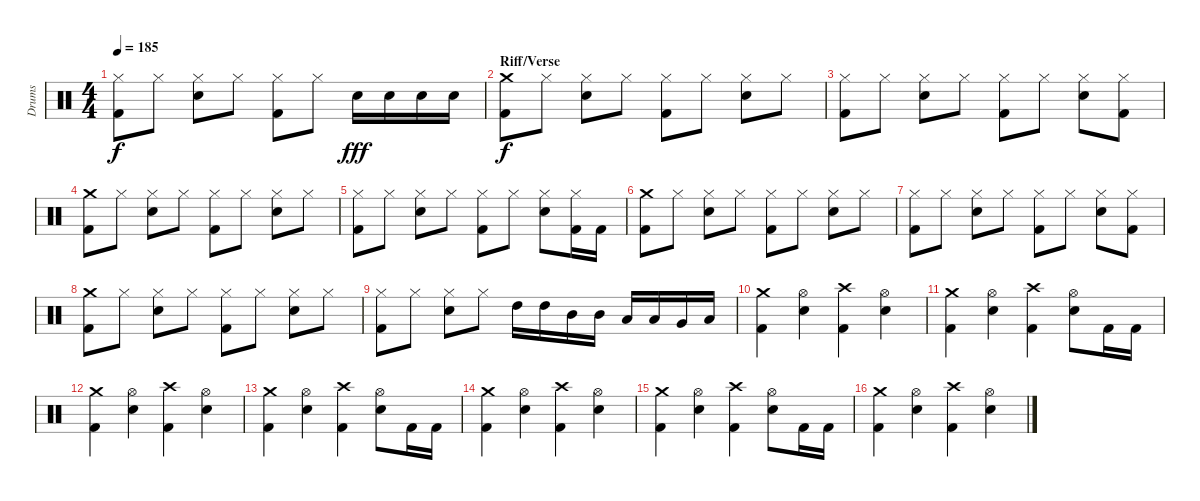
\track ("Drums" "Drums") {instrument percussion}
\staff {score}
\articulation defaults
\ts (4 4)
\tempo 185
\clef neutral
\ks c
("Hi-Hat (closed)" "Kick (hit) 2").8{dy f} "Hi-Hat (closed)".8 ("Hi-Hat (closed)" "Electric Snare (hit)").8 "Hi-Hat (closed)".8 ("Hi-Hat (closed)" "Kick (hit) 2").8 "Hi-Hat (closed)".8 "Electric Snare (hit)".16{dy fff} "Electric Snare (hit)".16 "Electric Snare (hit)".16 "Electric Snare (hit)".16 |
\section ("" "Riff/Verse")
("Crash medium (hit)" "Kick (hit) 2").8{dy f} "Hi-Hat (closed)".8 ("Hi-Hat (closed)" "Electric Snare (hit)").8 "Hi-Hat (closed)".8 ("Hi-Hat (closed)" "Kick (hit) 2").8 "Hi-Hat (closed)".8 ("Hi-Hat (closed)" "Electric Snare (hit)").8 "Hi-Hat (closed)".8 |
("Hi-Hat (closed)" "Kick (hit) 2").8 "Hi-Hat (closed)".8 ("Hi-Hat (closed)" "Electric Snare (hit)").8 "Hi-Hat (closed)".8 ("Hi-Hat (closed)" "Kick (hit) 2").8 "Hi-Hat (closed)".8 ("Hi-Hat (closed)" "Electric Snare (hit)").8 ("Hi-Hat (closed)" "Kick (hit) 2").8 |
("Crash medium (hit)" "Kick (hit) 2").8 "Hi-Hat (closed)".8 ("Hi-Hat (closed)" "Electric Snare (hit)").8 "Hi-Hat (closed)".8 ("Hi-Hat (closed)" "Kick (hit) 2").8 "Hi-Hat (closed)".8 ("Hi-Hat (closed)" "Electric Snare (hit)").8 "Hi-Hat (closed)".8 |
("Hi-Hat (closed)" "Kick (hit) 2").8 "Hi-Hat (closed)".8 ("Hi-Hat (closed)" "Electric Snare (hit)").8 "Hi-Hat (closed)".8 ("Hi-Hat (closed)" "Kick (hit) 2").8 "Hi-Hat (closed)".8 ("Hi-Hat (closed)" "Electric Snare (hit)").8 ("Hi-Hat (closed)" "Kick (hit) 2").16 "Kick (hit) 2".16 |
("Crash medium (hit)" "Kick (hit) 2").8 "Hi-Hat (closed)".8 ("Hi-Hat (closed)" "Electric Snare (hit)").8 "Hi-Hat (closed)".8 ("Hi-Hat (closed)" "Kick (hit) 2").8 "Hi-Hat (closed)".8 ("Hi-Hat (closed)" "Electric Snare (hit)").8 "Hi-Hat (closed)".8 |
("Hi-Hat (closed)" "Kick (hit) 2").8 "Hi-Hat (closed)".8 ("Hi-Hat (closed)" "Electric Snare (hit)").8 "Hi-Hat (closed)".8 ("Hi-Hat (closed)" "Kick (hit) 2").8 "Hi-Hat (closed)".8 ("Hi-Hat (closed)" "Electric Snare (hit)").8 ("Hi-Hat (closed)" "Kick (hit) 2").8 |
("Crash medium (hit)" "Kick (hit) 2").8 "Hi-Hat (closed)".8 ("Hi-Hat (closed)" "Electric Snare (hit)").8 "Hi-Hat (closed)".8 ("Hi-Hat (closed)" "Kick (hit) 2").8 "Hi-Hat (closed)".8 ("Hi-Hat (closed)" "Electric Snare (hit)").8 "Hi-Hat (closed)".8 |
("Hi-Hat (closed)" "Kick (hit) 2").8 "Hi-Hat (closed)".8 ("Hi-Hat (closed)" "Electric Snare (hit)").8 "Hi-Hat (closed)".8 "High Tom (hit)".16 "High Tom (hit)".16 "Mid Tom (hit)".16 "Mid Tom (hit)".16 "Low Tom (hit)".16 "Low Tom (hit)".16 "Very Low Tom (hit)".16 "Low Floor Tom (hit)".16 |
("Crash medium (hit)" "Kick (hit) 2").4 ("Hi-Hat (open)" "Electric Snare (hit)").4 ("Crash high (hit)" "Kick (hit) 2").4 ("Hi-Hat (open)" "Electric Snare (hit)").4 |
("Crash medium (hit)" "Kick (hit) 2").4 ("Hi-Hat (open)" "Electric Snare (hit)").4 ("Crash high (hit)" "Kick (hit) 2").4 ("Hi-Hat (open)" "Electric Snare (hit)").8 "Kick (hit) 2".16 "Kick (hit) 2".16 |
("Crash medium (hit)" "Kick (hit) 2").4 ("Hi-Hat (open)" "Electric Snare (hit)").4 ("Crash high (hit)" "Kick (hit) 2").4 ("Hi-Hat (open)" "Electric Snare (hit)").4 |
("Crash medium (hit)" "Kick (hit) 2").4 ("Hi-Hat (open)" "Electric Snare (hit)").4 ("Crash high (hit)" "Kick (hit) 2").4 ("Hi-Hat (open)" "Electric Snare (hit)").8 "Kick (hit) 2".16 "Kick (hit) 2".16 |
("Crash medium (hit)" "Kick (hit) 2").4 ("Hi-Hat (open)" "Electric Snare (hit)").4 ("Crash high (hit)" "Kick (hit) 2").4 ("Hi-Hat (open)" "Electric Snare (hit)").4 |
("Crash medium (hit)" "Kick (hit) 2").4 ("Hi-Hat (open)" "Electric Snare (hit)").4 ("Crash high (hit)" "Kick (hit) 2").4 ("Hi-Hat (open)" "Electric Snare (hit)").8 "Kick (hit) 2".16 "Kick (hit) 2".16 |
("Crash medium (hit)" "Kick (hit) 2").4 ("Hi-Hat (open)" "Electric Snare (hit)").4 ("Crash high (hit)" "Kick (hit) 2").4 ("Hi-Hat (open)" "Electric Snare (hit)").4
